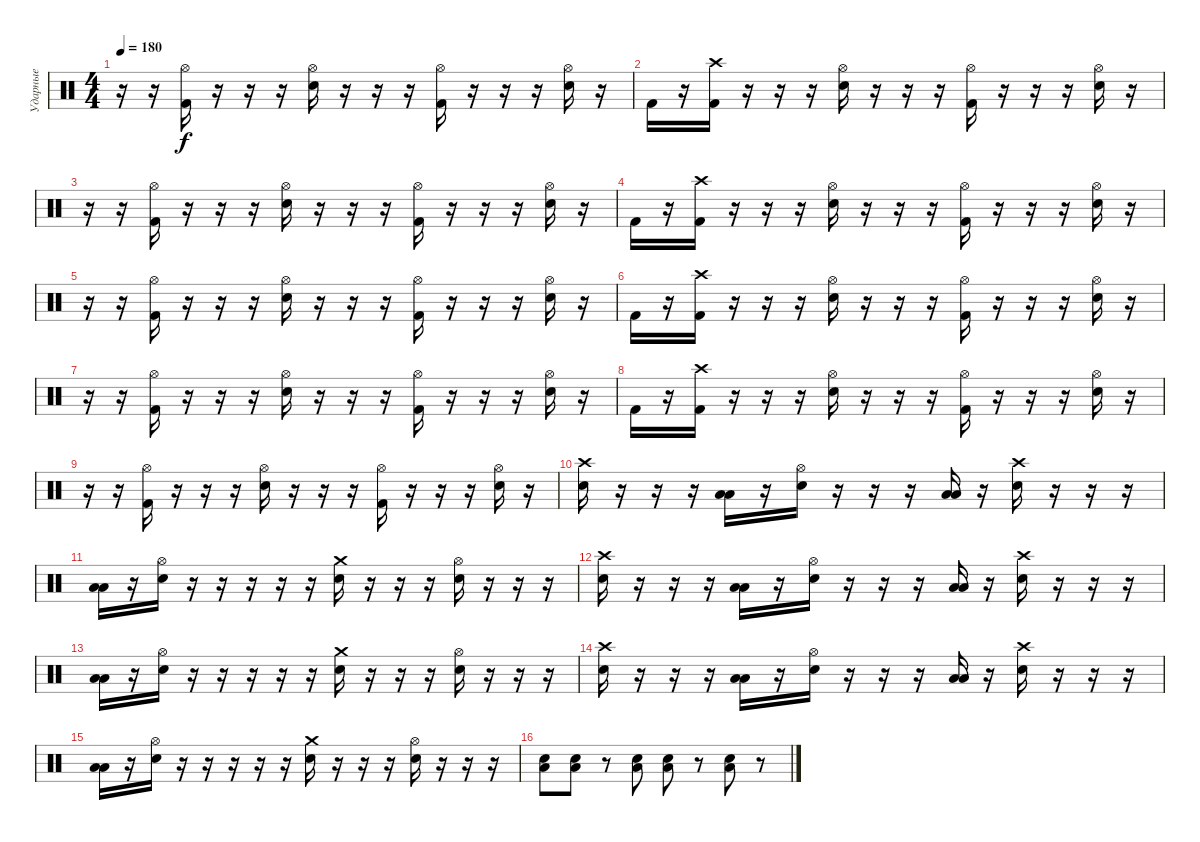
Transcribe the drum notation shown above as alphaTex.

\track ("Ударные" "Ударные") {instrument percussion}
\staff {score}
\articulation defaults
\ts (4 4)
\tempo 180
\clef neutral
\ks c
r.16{dy f} r.16 ("Hi-Hat (open)" "Kick (hit) 2").16 r.16 r.16 r.16 ("Hi-Hat (open)" "Electric Snare (hit)").16 r.16 r.16 r.16 ("Hi-Hat (open)" "Kick (hit) 2").16 r.16 r.16 r.16 ("Hi-Hat (open)" "Electric Snare (hit)").16 r.16 |
"Kick (hit) 2".16 r.16 ("Crash high (hit)" "Kick (hit) 2").16 r.16 r.16 r.16 ("Hi-Hat (open)" "Electric Snare (hit)").16 r.16 r.16 r.16 ("Hi-Hat (open)" "Kick (hit) 2").16 r.16 r.16 r.16 ("Hi-Hat (open)" "Electric Snare (hit)").16 r.16 |
r.16 r.16 ("Hi-Hat (open)" "Kick (hit) 2").16 r.16 r.16 r.16 ("Hi-Hat (open)" "Electric Snare (hit)").16 r.16 r.16 r.16 ("Hi-Hat (open)" "Kick (hit) 2").16 r.16 r.16 r.16 ("Hi-Hat (open)" "Electric Snare (hit)").16 r.16 |
"Kick (hit) 2".16 r.16 ("Crash high (hit)" "Kick (hit) 2").16 r.16 r.16 r.16 ("Hi-Hat (open)" "Electric Snare (hit)").16 r.16 r.16 r.16 ("Hi-Hat (open)" "Kick (hit) 2").16 r.16 r.16 r.16 ("Hi-Hat (open)" "Electric Snare (hit)").16 r.16 |
r.16 r.16 ("Hi-Hat (open)" "Kick (hit) 2").16 r.16 r.16 r.16 ("Hi-Hat (open)" "Electric Snare (hit)").16 r.16 r.16 r.16 ("Hi-Hat (open)" "Kick (hit) 2").16 r.16 r.16 r.16 ("Hi-Hat (open)" "Electric Snare (hit)").16 r.16 |
"Kick (hit) 2".16 r.16 ("Crash high (hit)" "Kick (hit) 2").16 r.16 r.16 r.16 ("Hi-Hat (open)" "Electric Snare (hit)").16 r.16 r.16 r.16 ("Hi-Hat (open)" "Kick (hit) 2").16 r.16 r.16 r.16 ("Hi-Hat (open)" "Electric Snare (hit)").16 r.16 |
r.16 r.16 ("Hi-Hat (open)" "Kick (hit) 2").16 r.16 r.16 r.16 ("Hi-Hat (open)" "Electric Snare (hit)").16 r.16 r.16 r.16 ("Hi-Hat (open)" "Kick (hit) 2").16 r.16 r.16 r.16 ("Hi-Hat (open)" "Electric Snare (hit)").16 r.16 |
"Kick (hit) 2".16 r.16 ("Crash high (hit)" "Kick (hit) 2").16 r.16 r.16 r.16 ("Hi-Hat (open)" "Electric Snare (hit)").16 r.16 r.16 r.16 ("Hi-Hat (open)" "Kick (hit) 2").16 r.16 r.16 r.16 ("Hi-Hat (open)" "Electric Snare (hit)").16 r.16 |
r.16 r.16 ("Hi-Hat (open)" "Kick (hit) 2").16 r.16 r.16 r.16 ("Hi-Hat (open)" "Electric Snare (hit)").16 r.16 r.16 r.16 ("Hi-Hat (open)" "Kick (hit) 2").16 r.16 r.16 r.16 ("Hi-Hat (open)" "Electric Snare (hit)").16 r.16 |
("Crash high (hit)" "Electric Snare (hit)").16 r.16 r.16 r.16 ("Low Tom (hit)" "Low Floor Tom (hit)").16 r.16 ("Hi-Hat (open)" "Electric Snare (hit)").16 r.16 r.16 r.16 ("Low Tom (hit)" "Low Floor Tom (hit)").16 r.16 ("Crash high (hit)" "Electric Snare (hit)").16 r.16 r.16 r.16 |
("Low Tom (hit)" "Low Floor Tom (hit)").16 r.16 ("Electric Snare (hit)" "Hi-Hat (open)").16 r.16 r.16 r.16 r.16 r.16 ("Electric Snare (hit)" "Crash medium (hit)").16 r.16 r.16 r.16 ("Electric Snare (hit)" "Hi-Hat (open)").16 r.16 r.16 r.16 |
("Crash high (hit)" "Electric Snare (hit)").16 r.16 r.16 r.16 ("Low Tom (hit)" "Low Floor Tom (hit)").16 r.16 ("Hi-Hat (open)" "Electric Snare (hit)").16 r.16 r.16 r.16 ("Low Tom (hit)" "Low Floor Tom (hit)").16 r.16 ("Crash high (hit)" "Electric Snare (hit)").16 r.16 r.16 r.16 |
("Low Tom (hit)" "Low Floor Tom (hit)").16 r.16 ("Electric Snare (hit)" "Hi-Hat (open)").16 r.16 r.16 r.16 r.16 r.16 ("Electric Snare (hit)" "Crash medium (hit)").16 r.16 r.16 r.16 ("Electric Snare (hit)" "Hi-Hat (open)").16 r.16 r.16 r.16 |
("Crash high (hit)" "Electric Snare (hit)").16 r.16 r.16 r.16 ("Low Tom (hit)" "Low Floor Tom (hit)").16 r.16 ("Hi-Hat (open)" "Electric Snare (hit)").16 r.16 r.16 r.16 ("Low Tom (hit)" "Low Floor Tom (hit)").16 r.16 ("Crash high (hit)" "Electric Snare (hit)").16 r.16 r.16 r.16 |
("Low Tom (hit)" "Low Floor Tom (hit)").16 r.16 ("Electric Snare (hit)" "Hi-Hat (open)").16 r.16 r.16 r.16 r.16 r.16 ("Electric Snare (hit)" "Crash medium (hit)").16 r.16 r.16 r.16 ("Electric Snare (hit)" "Hi-Hat (open)").16 r.16 r.16 r.16 |
("Electric Snare (hit)" "Low Tom (hit)").8 ("Electric Snare (hit)" "Low Tom (hit)").8 r.8 ("Electric Snare (hit)" "Low Tom (hit)").8 ("Electric Snare (hit)" "Low Tom (hit)").8 r.8 ("Electric Snare (hit)" "Low Tom (hit)").8 r.8
